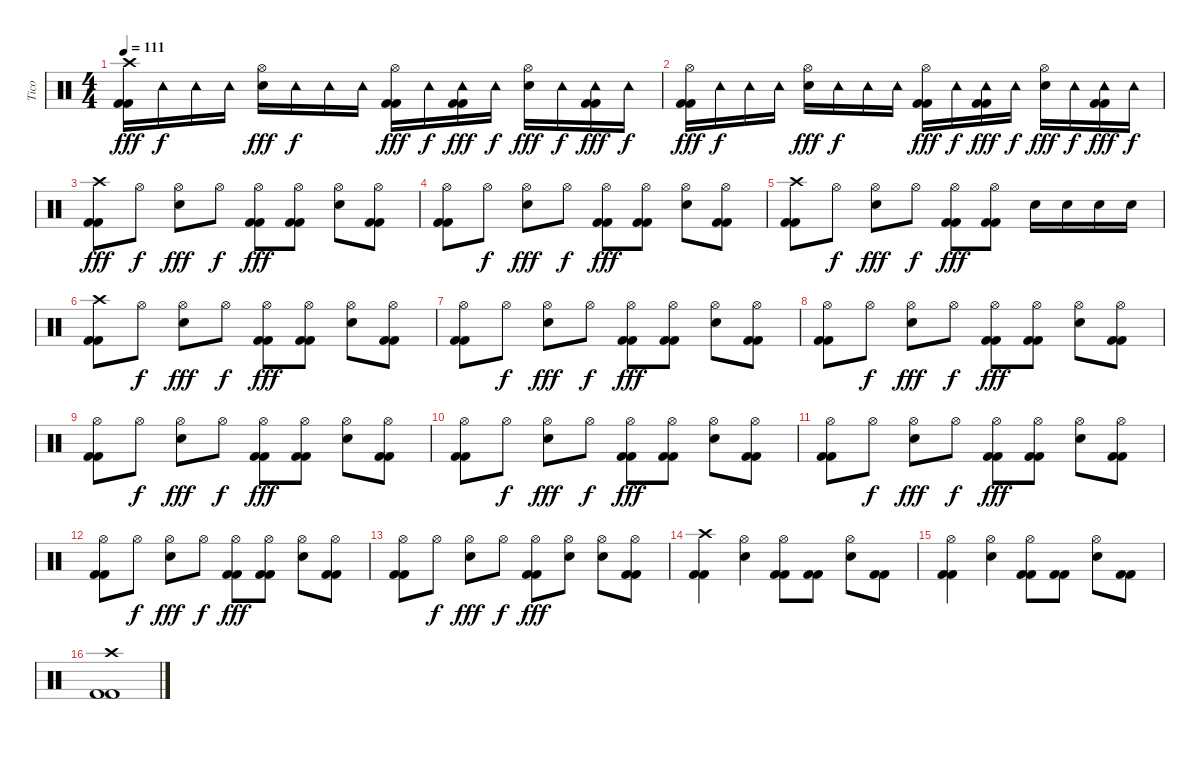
\track ("Tico" "Tico") {instrument percussion}
\staff {score}
\articulation defaults
\ts (4 4)
\tempo 111
\clef neutral
\ks c
("Crash high (hit)" "Kick (hit) 2" "Kick (hit) 2").16{dy fff} "Tambourine (hit)".16{dy f} "Tambourine (hit)".16 "Tambourine (hit)".16 ("Hi-Hat (open)" "Snare (hit) 2").16{dy fff} "Tambourine (hit)".16{dy f} "Tambourine (hit)".16 "Tambourine (hit)".16 ("Hi-Hat (open)" "Kick (hit) 2" "Kick (hit) 2").16{dy fff} "Tambourine (hit)".16{dy f} ("Tambourine (hit)" "Kick (hit) 2" "Kick (hit) 2").16{dy fff} "Tambourine (hit)".16{dy f} ("Hi-Hat (open)" "Snare (hit) 2").16{dy fff} "Tambourine (hit)".16{dy f} ("Tambourine (hit)" "Kick (hit) 2" "Kick (hit) 2").16{dy fff} "Tambourine (hit)".16{dy f} |
("Hi-Hat (open)" "Kick (hit) 2" "Kick (hit) 2").16{dy fff} "Tambourine (hit)".16{dy f} "Tambourine (hit)".16 "Tambourine (hit)".16 ("Hi-Hat (open)" "Snare (hit) 2").16{dy fff} "Tambourine (hit)".16{dy f} "Tambourine (hit)".16 "Tambourine (hit)".16 ("Hi-Hat (open)" "Kick (hit) 2" "Kick (hit) 2").16{dy fff} "Tambourine (hit)".16{dy f} ("Tambourine (hit)" "Kick (hit) 2" "Kick (hit) 2").16{dy fff} "Tambourine (hit)".16{dy f} ("Hi-Hat (open)" "Snare (hit) 2").16{dy fff} "Tambourine (hit)".16{dy f} ("Tambourine (hit)" "Kick (hit) 2" "Kick (hit) 2").16{dy fff} "Tambourine (hit)".16{dy f} |
("Crash high (hit)" "Kick (hit) 2" "Kick (hit) 2").8{dy fff} "Hi-Hat (open)".8{dy f} ("Hi-Hat (open)" "Snare (hit) 2").8{dy fff} "Hi-Hat (open)".8{dy f} ("Hi-Hat (open)" "Kick (hit) 2" "Kick (hit) 2").8{dy fff} ("Hi-Hat (open)" "Kick (hit) 2" "Kick (hit) 2").8 ("Hi-Hat (open)" "Snare (hit) 2").8 ("Hi-Hat (open)" "Kick (hit) 2" "Kick (hit) 2").8 |
("Hi-Hat (open)" "Kick (hit) 2" "Kick (hit) 2").8 "Hi-Hat (open)".8{dy f} ("Hi-Hat (open)" "Snare (hit) 2").8{dy fff} "Hi-Hat (open)".8{dy f} ("Hi-Hat (open)" "Kick (hit) 2" "Kick (hit) 2").8{dy fff} ("Hi-Hat (open)" "Kick (hit) 2" "Kick (hit) 2").8 ("Hi-Hat (open)" "Snare (hit) 2").8 ("Hi-Hat (open)" "Kick (hit) 2" "Kick (hit) 2").8 |
("Crash high (hit)" "Kick (hit) 2" "Kick (hit) 2").8 "Hi-Hat (open)".8{dy f} ("Hi-Hat (open)" "Snare (hit) 2").8{dy fff} "Hi-Hat (open)".8{dy f} ("Hi-Hat (open)" "Kick (hit) 2" "Kick (hit) 2").8{dy fff} ("Hi-Hat (open)" "Kick (hit) 2" "Kick (hit) 2").8 "Snare (hit) 2".16 "Snare (hit) 2".16 "Snare (hit) 2".16 "Snare (hit) 2".16 |
("Crash high (hit)" "Kick (hit) 2" "Kick (hit) 2").8 "Hi-Hat (open)".8{dy f} ("Hi-Hat (open)" "Snare (hit) 2").8{dy fff} "Hi-Hat (open)".8{dy f} ("Hi-Hat (open)" "Kick (hit) 2" "Kick (hit) 2").8{dy fff} ("Hi-Hat (open)" "Kick (hit) 2" "Kick (hit) 2").8 ("Hi-Hat (open)" "Snare (hit) 2").8 ("Hi-Hat (open)" "Kick (hit) 2" "Kick (hit) 2").8 |
("Hi-Hat (open)" "Kick (hit) 2" "Kick (hit) 2").8 "Hi-Hat (open)".8{dy f} ("Hi-Hat (open)" "Snare (hit) 2").8{dy fff} "Hi-Hat (open)".8{dy f} ("Hi-Hat (open)" "Kick (hit) 2" "Kick (hit) 2").8{dy fff} ("Hi-Hat (open)" "Kick (hit) 2" "Kick (hit) 2").8 ("Hi-Hat (open)" "Snare (hit) 2").8 ("Hi-Hat (open)" "Kick (hit) 2" "Kick (hit) 2").8 |
("Hi-Hat (open)" "Kick (hit) 2" "Kick (hit) 2").8 "Hi-Hat (open)".8{dy f} ("Hi-Hat (open)" "Snare (hit) 2").8{dy fff} "Hi-Hat (open)".8{dy f} ("Hi-Hat (open)" "Kick (hit) 2" "Kick (hit) 2").8{dy fff} ("Hi-Hat (open)" "Kick (hit) 2" "Kick (hit) 2").8 ("Hi-Hat (open)" "Snare (hit) 2").8 ("Hi-Hat (open)" "Kick (hit) 2" "Kick (hit) 2").8 |
("Hi-Hat (open)" "Kick (hit) 2" "Kick (hit) 2").8 "Hi-Hat (open)".8{dy f} ("Hi-Hat (open)" "Snare (hit) 2").8{dy fff} "Hi-Hat (open)".8{dy f} ("Hi-Hat (open)" "Kick (hit) 2" "Kick (hit) 2").8{dy fff} ("Hi-Hat (open)" "Kick (hit) 2" "Kick (hit) 2").8 ("Hi-Hat (open)" "Snare (hit) 2").8 ("Hi-Hat (open)" "Kick (hit) 2" "Kick (hit) 2").8 |
("Hi-Hat (open)" "Kick (hit) 2" "Kick (hit) 2").8 "Hi-Hat (open)".8{dy f} ("Hi-Hat (open)" "Snare (hit) 2").8{dy fff} "Hi-Hat (open)".8{dy f} ("Hi-Hat (open)" "Kick (hit) 2" "Kick (hit) 2").8{dy fff} ("Hi-Hat (open)" "Kick (hit) 2" "Kick (hit) 2").8 ("Hi-Hat (open)" "Snare (hit) 2").8 ("Hi-Hat (open)" "Kick (hit) 2" "Kick (hit) 2").8 |
("Hi-Hat (open)" "Kick (hit) 2" "Kick (hit) 2").8 "Hi-Hat (open)".8{dy f} ("Hi-Hat (open)" "Snare (hit) 2").8{dy fff} "Hi-Hat (open)".8{dy f} ("Hi-Hat (open)" "Kick (hit) 2" "Kick (hit) 2").8{dy fff} ("Hi-Hat (open)" "Kick (hit) 2" "Kick (hit) 2").8 ("Hi-Hat (open)" "Snare (hit) 2").8 ("Hi-Hat (open)" "Kick (hit) 2" "Kick (hit) 2").8 |
("Hi-Hat (open)" "Kick (hit) 2" "Kick (hit) 2").8 "Hi-Hat (open)".8{dy f} ("Hi-Hat (open)" "Snare (hit) 2").8{dy fff} "Hi-Hat (open)".8{dy f} ("Hi-Hat (open)" "Kick (hit) 2" "Kick (hit) 2").8{dy fff} ("Hi-Hat (open)" "Kick (hit) 2" "Kick (hit) 2").8 ("Hi-Hat (open)" "Snare (hit) 2").8 ("Hi-Hat (open)" "Kick (hit) 2" "Kick (hit) 2").8 |
("Hi-Hat (open)" "Kick (hit) 2" "Kick (hit) 2").8 "Hi-Hat (open)".8{dy f} ("Hi-Hat (open)" "Snare (hit) 2").8{dy fff} "Hi-Hat (open)".8{dy f} ("Hi-Hat (open)" "Kick (hit) 2" "Kick (hit) 2").8{dy fff} ("Hi-Hat (open)" "Snare (hit) 2").8 ("Hi-Hat (open)" "Snare (hit) 2").8 ("Hi-Hat (open)" "Kick (hit) 2" "Kick (hit) 2").8 |
("Crash high (hit)" "Kick (hit) 2" "Kick (hit) 2").4 ("Hi-Hat (open)" "Snare (hit) 2").4 ("Hi-Hat (open)" "Kick (hit) 2" "Kick (hit) 2").8 ("Kick (hit) 2" "Kick (hit) 2").8 ("Hi-Hat (open)" "Snare (hit) 2").8 ("Kick (hit) 2" "Kick (hit) 2").8 |
("Hi-Hat (open)" "Kick (hit) 2" "Kick (hit) 2").4 ("Hi-Hat (open)" "Snare (hit) 2").4 ("Hi-Hat (open)" "Kick (hit) 2" "Kick (hit) 2").8 ("Kick (hit) 2" "Kick (hit) 2").8 ("Hi-Hat (open)" "Snare (hit) 2").8 ("Kick (hit) 2" "Kick (hit) 2").8 |
("Crash high (hit)" "Kick (hit) 2" "Kick (hit) 2").1
